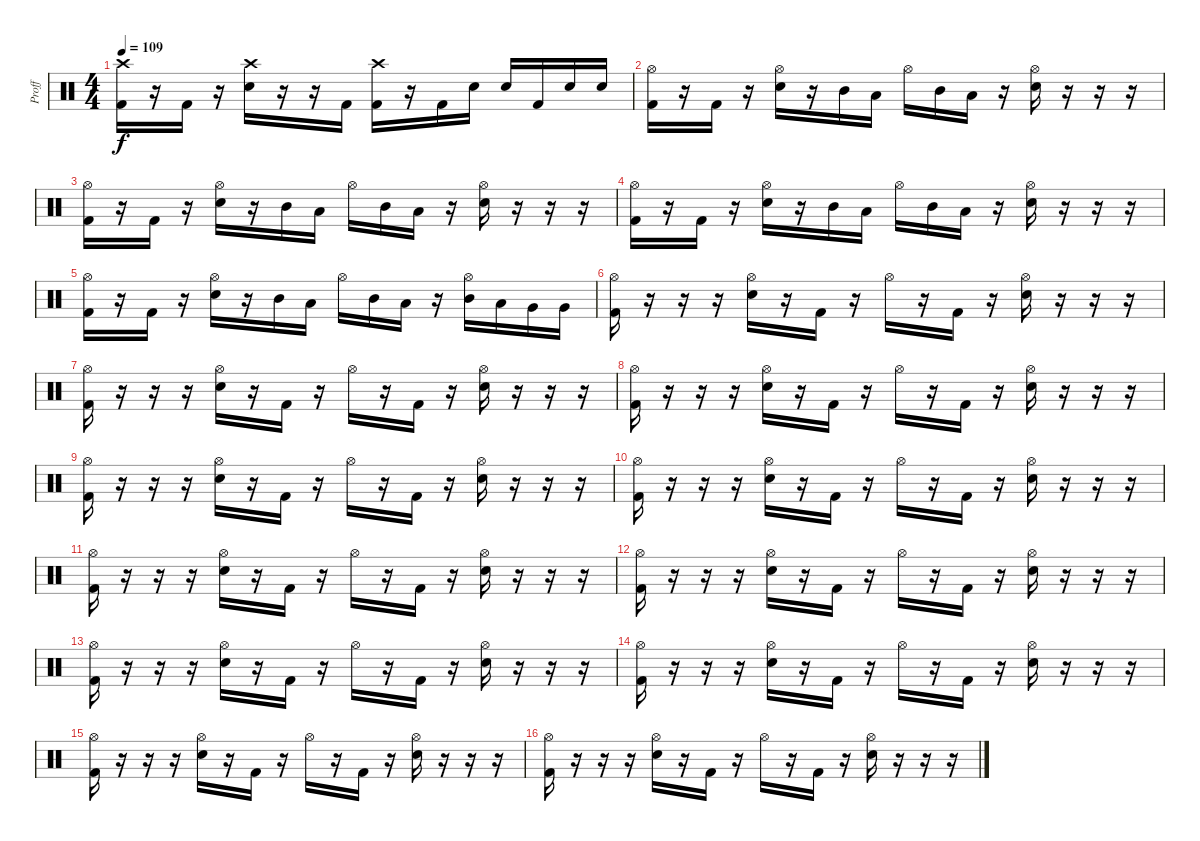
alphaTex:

\track ("Proff" "Proff") {instrument percussion}
\staff {score}
\articulation defaults
\ts (4 4)
\tempo 109
\clef neutral
\ks c
("Crash high (hit)" "Kick (hit) 2").16{dy f} r.16 "Kick (hit) 2".16 r.16 ("Crash high (hit)" "Electric Snare (hit)").16 r.16 r.16 "Kick (hit) 2".16 ("Crash high (hit)" "Kick (hit) 2").16 r.16 "Kick (hit) 2".16 "Electric Snare (hit)".16 "Electric Snare (hit)".16 "Kick (hit) 2".16 "Electric Snare (hit)".16 "Electric Snare (hit)".16 |
("Hi-Hat (open)" "Kick (hit) 2").16 r.16 "Kick (hit) 2".16 r.16 ("Hi-Hat (open)" "Electric Snare (hit)").16 r.16 "Mid Tom (hit)".16 "Low Tom (hit)".16 "Hi-Hat (open)".16 "Mid Tom (hit)".16 "Low Tom (hit)".16 r.16 ("Hi-Hat (open)" "Electric Snare (hit)").16 r.16 r.16 r.16 |
("Hi-Hat (open)" "Kick (hit) 2").16 r.16 "Kick (hit) 2".16 r.16 ("Hi-Hat (open)" "Electric Snare (hit)").16 r.16 "Mid Tom (hit)".16 "Low Tom (hit)".16 "Hi-Hat (open)".16 "Mid Tom (hit)".16 "Low Tom (hit)".16 r.16 ("Hi-Hat (open)" "Electric Snare (hit)").16 r.16 r.16 r.16 |
("Hi-Hat (open)" "Kick (hit) 2").16 r.16 "Kick (hit) 2".16 r.16 ("Hi-Hat (open)" "Electric Snare (hit)").16 r.16 "Mid Tom (hit)".16 "Low Tom (hit)".16 "Hi-Hat (open)".16 "Mid Tom (hit)".16 "Low Tom (hit)".16 r.16 ("Hi-Hat (open)" "Electric Snare (hit)").16 r.16 r.16 r.16 |
("Hi-Hat (open)" "Kick (hit) 2").16 r.16 "Kick (hit) 2".16 r.16 ("Hi-Hat (open)" "Electric Snare (hit)").16 r.16 "Mid Tom (hit)".16 "Low Tom (hit)".16 "Hi-Hat (open)".16 "Mid Tom (hit)".16 "Low Tom (hit)".16 r.16 ("Hi-Hat (open)" "Mid Tom (hit)").16 "Low Tom (hit)".16 "Very Low Tom (hit)".16 "Very Low Tom (hit)".16 |
("Hi-Hat (open)" "Kick (hit) 2").16 r.16 r.16 r.16 ("Hi-Hat (open)" "Electric Snare (hit)").16 r.16 "Kick (hit) 2".16 r.16 "Hi-Hat (open)".16 r.16 "Kick (hit) 2".16 r.16 ("Hi-Hat (open)" "Electric Snare (hit)").16 r.16 r.16 r.16 |
("Hi-Hat (open)" "Kick (hit) 2").16 r.16 r.16 r.16 ("Hi-Hat (open)" "Electric Snare (hit)").16 r.16 "Kick (hit) 2".16 r.16 "Hi-Hat (open)".16 r.16 "Kick (hit) 2".16 r.16 ("Hi-Hat (open)" "Electric Snare (hit)").16 r.16 r.16 r.16 |
("Hi-Hat (open)" "Kick (hit) 2").16 r.16 r.16 r.16 ("Hi-Hat (open)" "Electric Snare (hit)").16 r.16 "Kick (hit) 2".16 r.16 "Hi-Hat (open)".16 r.16 "Kick (hit) 2".16 r.16 ("Hi-Hat (open)" "Electric Snare (hit)").16 r.16 r.16 r.16 |
("Hi-Hat (open)" "Kick (hit) 2").16 r.16 r.16 r.16 ("Hi-Hat (open)" "Electric Snare (hit)").16 r.16 "Kick (hit) 2".16 r.16 "Hi-Hat (open)".16 r.16 "Kick (hit) 2".16 r.16 ("Hi-Hat (open)" "Electric Snare (hit)").16 r.16 r.16 r.16 |
("Hi-Hat (open)" "Kick (hit) 2").16 r.16 r.16 r.16 ("Hi-Hat (open)" "Electric Snare (hit)").16 r.16 "Kick (hit) 2".16 r.16 "Hi-Hat (open)".16 r.16 "Kick (hit) 2".16 r.16 ("Hi-Hat (open)" "Electric Snare (hit)").16 r.16 r.16 r.16 |
("Hi-Hat (open)" "Kick (hit) 2").16 r.16 r.16 r.16 ("Hi-Hat (open)" "Electric Snare (hit)").16 r.16 "Kick (hit) 2".16 r.16 "Hi-Hat (open)".16 r.16 "Kick (hit) 2".16 r.16 ("Hi-Hat (open)" "Electric Snare (hit)").16 r.16 r.16 r.16 |
("Hi-Hat (open)" "Kick (hit) 2").16 r.16 r.16 r.16 ("Hi-Hat (open)" "Electric Snare (hit)").16 r.16 "Kick (hit) 2".16 r.16 "Hi-Hat (open)".16 r.16 "Kick (hit) 2".16 r.16 ("Hi-Hat (open)" "Electric Snare (hit)").16 r.16 r.16 r.16 |
("Hi-Hat (open)" "Kick (hit) 2").16 r.16 r.16 r.16 ("Hi-Hat (open)" "Electric Snare (hit)").16 r.16 "Kick (hit) 2".16 r.16 "Hi-Hat (open)".16 r.16 "Kick (hit) 2".16 r.16 ("Hi-Hat (open)" "Electric Snare (hit)").16 r.16 r.16 r.16 |
("Hi-Hat (open)" "Kick (hit) 2").16 r.16 r.16 r.16 ("Hi-Hat (open)" "Electric Snare (hit)").16 r.16 "Kick (hit) 2".16 r.16 "Hi-Hat (open)".16 r.16 "Kick (hit) 2".16 r.16 ("Hi-Hat (open)" "Electric Snare (hit)").16 r.16 r.16 r.16 |
("Hi-Hat (open)" "Kick (hit) 2").16 r.16 r.16 r.16 ("Hi-Hat (open)" "Electric Snare (hit)").16 r.16 "Kick (hit) 2".16 r.16 "Hi-Hat (open)".16 r.16 "Kick (hit) 2".16 r.16 ("Hi-Hat (open)" "Electric Snare (hit)").16 r.16 r.16 r.16 |
("Hi-Hat (open)" "Kick (hit) 2").16 r.16 r.16 r.16 ("Hi-Hat (open)" "Electric Snare (hit)").16 r.16 "Kick (hit) 2".16 r.16 "Hi-Hat (open)".16 r.16 "Kick (hit) 2".16 r.16 ("Hi-Hat (open)" "Electric Snare (hit)").16 r.16 r.16 r.16
